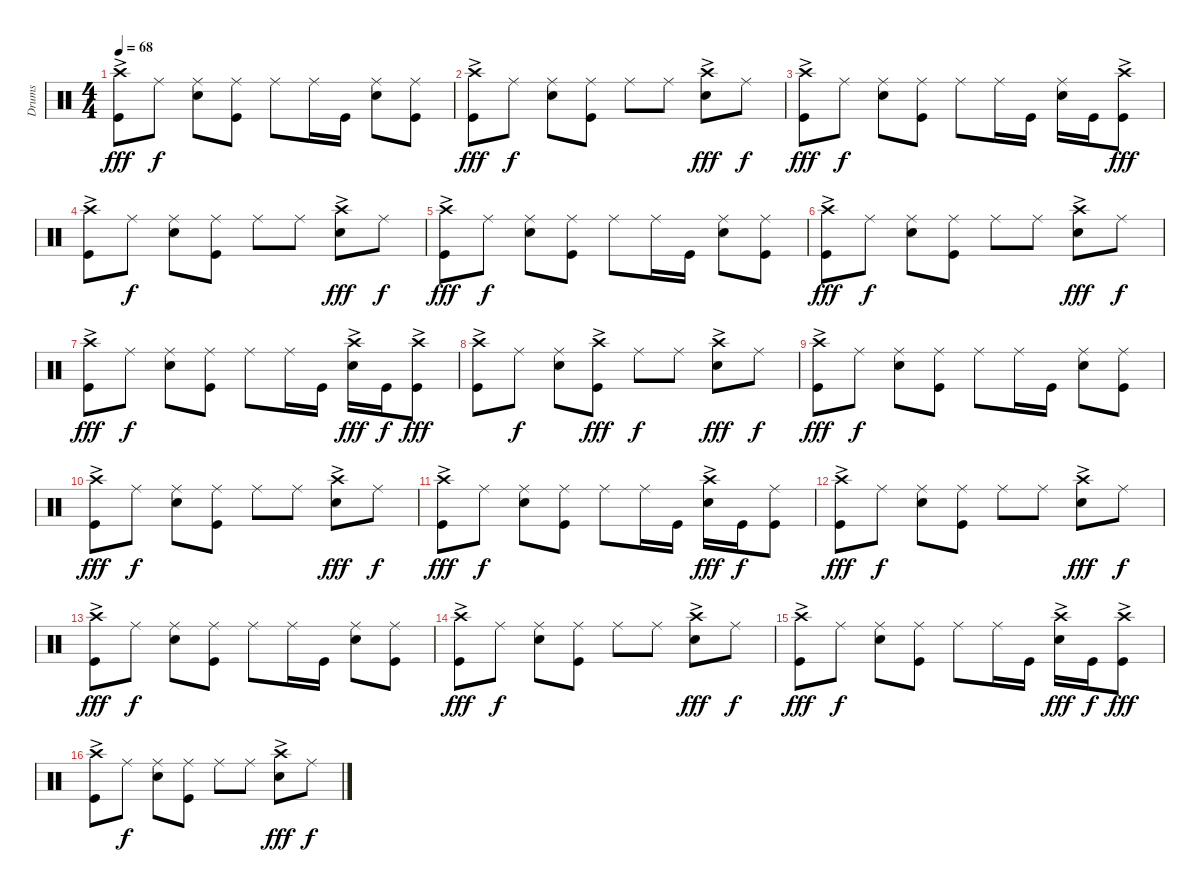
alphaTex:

\track ("Drums" "Drums") {instrument percussion}
\staff {score}
\articulation defaults
\ts (4 4)
\tempo 68
\clef neutral
\ks c
("Crash high (hit)"{ac} "Kick (hit)").8{dy fff} "Ride (middle)".8{dy f} ("Ride (middle)" "Snare (hit) 2").8 ("Ride (middle)" "Kick (hit)").8 "Ride (middle)".8 "Ride (middle)".16 "Kick (hit)".16 ("Ride (middle)" "Snare (hit) 2").8 ("Ride (middle)" "Kick (hit)").8 |
("Crash high (hit)"{ac} "Kick (hit)").8{dy fff} "Ride (middle)".8{dy f} ("Ride (middle)" "Snare (hit) 2").8 ("Ride (middle)" "Kick (hit)").8 "Ride (middle)".8 "Ride (middle)".8 ("Crash high (hit)"{ac} "Snare (hit) 2").8{dy fff} "Ride (middle)".8{dy f} |
("Crash high (hit)"{ac} "Kick (hit)").8{dy fff} "Ride (middle)".8{dy f} ("Ride (middle)" "Snare (hit) 2").8 ("Ride (middle)" "Kick (hit)").8 "Ride (middle)".8 "Ride (middle)".16 "Kick (hit)".16 ("Ride (middle)" "Snare (hit) 2").16 "Kick (hit)".16 ("Crash high (hit)"{ac} "Kick (hit)").8{dy fff} |
("Crash high (hit)"{ac} "Kick (hit)").8 "Ride (middle)".8{dy f} ("Ride (middle)" "Snare (hit) 2").8 ("Ride (middle)" "Kick (hit)").8 "Ride (middle)".8 "Ride (middle)".8 ("Crash high (hit)"{ac} "Snare (hit) 2").8{dy fff} "Ride (middle)".8{dy f} |
("Crash high (hit)"{ac} "Kick (hit)").8{dy fff} "Ride (middle)".8{dy f} ("Ride (middle)" "Snare (hit) 2").8 ("Ride (middle)" "Kick (hit)").8 "Ride (middle)".8 "Ride (middle)".16 "Kick (hit)".16 ("Ride (middle)" "Snare (hit) 2").8 ("Ride (middle)" "Kick (hit)").8 |
("Crash high (hit)"{ac} "Kick (hit)").8{dy fff} "Ride (middle)".8{dy f} ("Ride (middle)" "Snare (hit) 2").8 ("Ride (middle)" "Kick (hit)").8 "Ride (middle)".8 "Ride (middle)".8 ("Crash high (hit)"{ac} "Snare (hit) 2").8{dy fff} "Ride (middle)".8{dy f} |
("Crash high (hit)"{ac} "Kick (hit)").8{dy fff} "Ride (middle)".8{dy f} ("Ride (middle)" "Snare (hit) 2").8 ("Ride (middle)" "Kick (hit)").8 "Ride (middle)".8 "Ride (middle)".16 "Kick (hit)".16 ("Crash high (hit)"{ac} "Snare (hit) 2").16{dy fff} "Kick (hit)".16{dy f} ("Crash high (hit)"{ac} "Kick (hit)").8{dy fff} |
("Crash high (hit)"{ac} "Kick (hit)").8 "Ride (middle)".8{dy f} ("Ride (middle)" "Snare (hit) 2").8 ("Crash high (hit)"{ac} "Kick (hit)").8{dy fff} "Ride (middle)".8{dy f} "Ride (middle)".8 ("Crash high (hit)"{ac} "Snare (hit) 2").8{dy fff} "Ride (middle)".8{dy f} |
("Crash high (hit)"{ac} "Kick (hit)").8{dy fff} "Ride (middle)".8{dy f} ("Ride (middle)" "Snare (hit) 2").8 ("Ride (middle)" "Kick (hit)").8 "Ride (middle)".8 "Ride (middle)".16 "Kick (hit)".16 ("Ride (middle)" "Snare (hit) 2").8 ("Ride (middle)" "Kick (hit)").8 |
("Crash high (hit)"{ac} "Kick (hit)").8{dy fff} "Ride (middle)".8{dy f} ("Ride (middle)" "Snare (hit) 2").8 ("Ride (middle)" "Kick (hit)").8 "Ride (middle)".8 "Ride (middle)".8 ("Crash high (hit)"{ac} "Snare (hit) 2").8{dy fff} "Ride (middle)".8{dy f} |
("Crash high (hit)"{ac} "Kick (hit)").8{dy fff} "Ride (middle)".8{dy f} ("Ride (middle)" "Snare (hit) 2").8 ("Ride (middle)" "Kick (hit)").8 "Ride (middle)".8 "Ride (middle)".16 "Kick (hit)".16 ("Crash high (hit)"{ac} "Snare (hit) 2").16{dy fff} "Kick (hit)".16{dy f} ("Ride (middle)" "Kick (hit)").8 |
("Crash high (hit)"{ac} "Kick (hit)").8{dy fff} "Ride (middle)".8{dy f} ("Ride (middle)" "Snare (hit) 2").8 ("Ride (middle)" "Kick (hit)").8 "Ride (middle)".8 "Ride (middle)".8 ("Crash high (hit)"{ac} "Snare (hit) 2").8{dy fff} "Ride (middle)".8{dy f} |
("Crash high (hit)"{ac} "Kick (hit)").8{dy fff} "Ride (middle)".8{dy f} ("Ride (middle)" "Snare (hit) 2").8 ("Ride (middle)" "Kick (hit)").8 "Ride (middle)".8 "Ride (middle)".16 "Kick (hit)".16 ("Ride (middle)" "Snare (hit) 2").8 ("Ride (middle)" "Kick (hit)").8 |
("Crash high (hit)"{ac} "Kick (hit)").8{dy fff} "Ride (middle)".8{dy f} ("Ride (middle)" "Snare (hit) 2").8 ("Ride (middle)" "Kick (hit)").8 "Ride (middle)".8 "Ride (middle)".8 ("Crash high (hit)"{ac} "Snare (hit) 2").8{dy fff} "Ride (middle)".8{dy f} |
("Crash high (hit)"{ac} "Kick (hit)").8{dy fff} "Ride (middle)".8{dy f} ("Ride (middle)" "Snare (hit) 2").8 ("Ride (middle)" "Kick (hit)").8 "Ride (middle)".8 "Ride (middle)".16 "Kick (hit)".16 ("Crash high (hit)"{ac} "Snare (hit) 2").16{dy fff} "Kick (hit)".16{dy f} ("Crash high (hit)"{ac} "Kick (hit)").8{dy fff} |
("Crash high (hit)"{ac} "Kick (hit)").8 "Ride (middle)".8{dy f} ("Ride (middle)" "Snare (hit) 2").8 ("Ride (middle)" "Kick (hit)").8 "Ride (middle)".8 "Ride (middle)".8 ("Crash high (hit)"{ac} "Snare (hit) 2").8{dy fff} "Ride (middle)".8{dy f}
